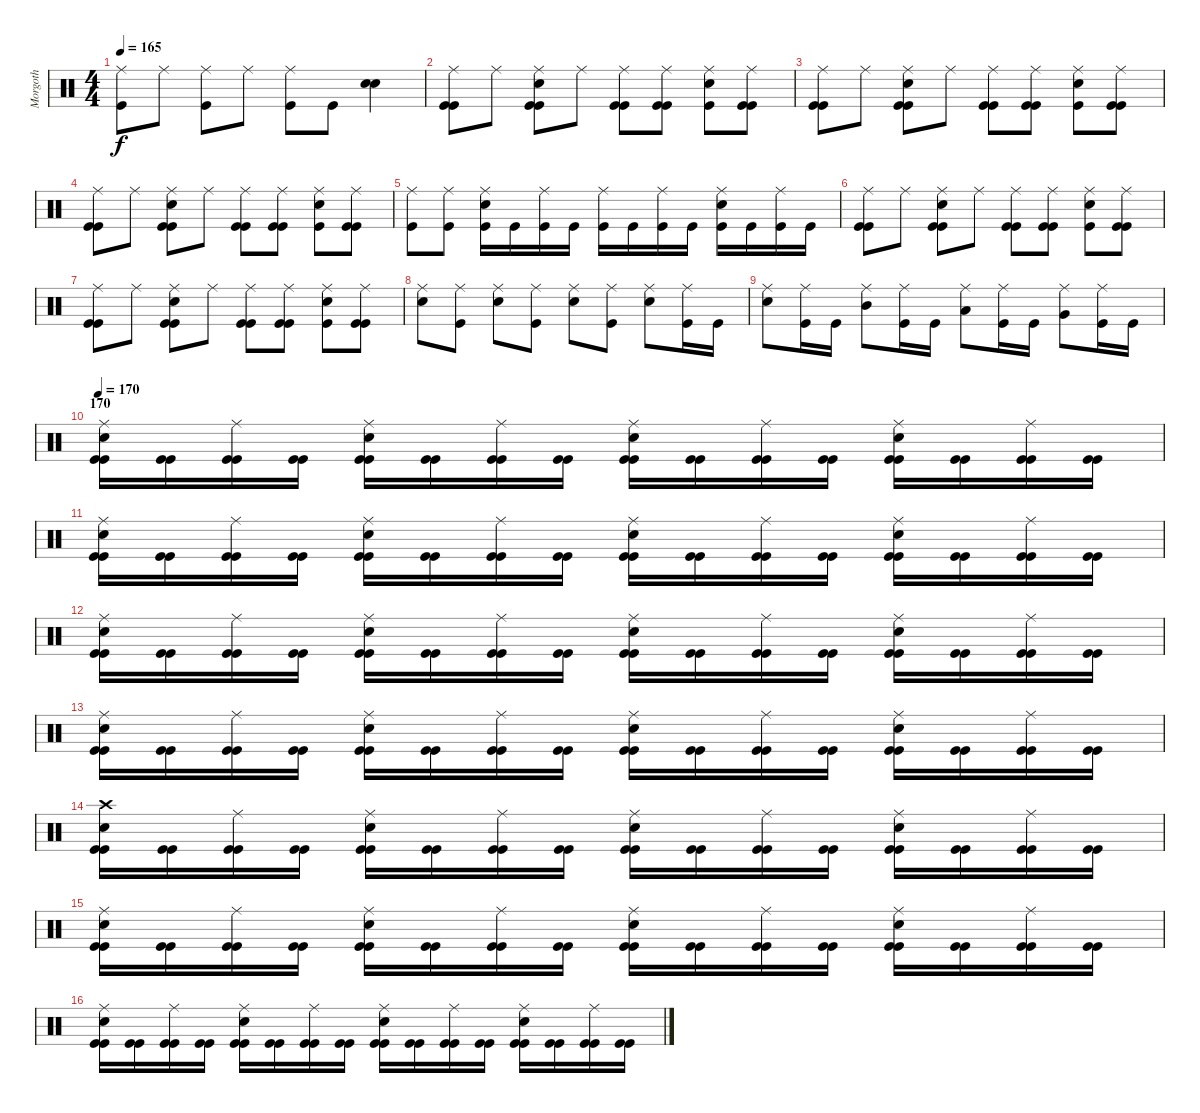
\track ("Morgoth" "Morgoth") {instrument percussion}
\staff {score}
\articulation defaults
\ts (4 4)
\tempo 165
\clef neutral
\ks c
("Ride (middle)" "Kick (hit)").8{dy f} "Ride (middle)".8 ("Ride (middle)" "Kick (hit)").8 "Ride (middle)".8 ("Ride (middle)" "Kick (hit)").8 "Kick (hit)".8 ("Electric Snare (hit)" "Electric Snare (hit)").4 |
("Ride (middle)" "Kick (hit)" "Kick (hit)").8 "Ride (middle)".8 ("Ride (middle)" "Electric Snare (hit)" "Kick (hit)" "Kick (hit)").8 "Ride (middle)".8 ("Ride (middle)" "Kick (hit)" "Kick (hit)").8 ("Ride (middle)" "Kick (hit)" "Kick (hit)").8 ("Ride (middle)" "Electric Snare (hit)" "Kick (hit)").8 ("Ride (middle)" "Kick (hit)" "Kick (hit)").8 |
("Ride (middle)" "Kick (hit)" "Kick (hit)").8 "Ride (middle)".8 ("Ride (middle)" "Electric Snare (hit)" "Kick (hit)" "Kick (hit)").8 "Ride (middle)".8 ("Ride (middle)" "Kick (hit)" "Kick (hit)").8 ("Ride (middle)" "Kick (hit)" "Kick (hit)").8 ("Ride (middle)" "Electric Snare (hit)" "Kick (hit)").8 ("Ride (middle)" "Kick (hit)" "Kick (hit)").8 |
("Ride (middle)" "Kick (hit)" "Kick (hit)").8 "Ride (middle)".8 ("Ride (middle)" "Electric Snare (hit)" "Kick (hit)" "Kick (hit)").8 "Ride (middle)".8 ("Ride (middle)" "Kick (hit)" "Kick (hit)").8 ("Ride (middle)" "Kick (hit)" "Kick (hit)").8 ("Ride (middle)" "Electric Snare (hit)" "Kick (hit)").8 ("Ride (middle)" "Kick (hit)" "Kick (hit)").8 |
("Ride (middle)" "Kick (hit)").8 ("Ride (middle)" "Kick (hit)").8 ("Ride (middle)" "Electric Snare (hit)" "Kick (hit)").16 "Kick (hit)".16 ("Ride (middle)" "Kick (hit)").16 "Kick (hit)".16 ("Ride (middle)" "Kick (hit)").16 "Kick (hit)".16 ("Ride (middle)" "Kick (hit)").16 "Kick (hit)".16 ("Ride (middle)" "Electric Snare (hit)" "Kick (hit)").16 "Kick (hit)".16 ("Ride (middle)" "Kick (hit)").16 "Kick (hit)".16 |
("Ride (middle)" "Kick (hit)" "Kick (hit)").8 "Ride (middle)".8 ("Ride (middle)" "Electric Snare (hit)" "Kick (hit)" "Kick (hit)").8 "Ride (middle)".8 ("Ride (middle)" "Kick (hit)" "Kick (hit)").8 ("Ride (middle)" "Kick (hit)" "Kick (hit)").8 ("Ride (middle)" "Electric Snare (hit)" "Kick (hit)").8 ("Ride (middle)" "Kick (hit)" "Kick (hit)").8 |
("Ride (middle)" "Kick (hit)" "Kick (hit)").8 "Ride (middle)".8 ("Ride (middle)" "Electric Snare (hit)" "Kick (hit)" "Kick (hit)").8 "Ride (middle)".8 ("Ride (middle)" "Kick (hit)" "Kick (hit)").8 ("Ride (middle)" "Kick (hit)" "Kick (hit)").8 ("Ride (middle)" "Electric Snare (hit)" "Kick (hit)").8 ("Ride (middle)" "Kick (hit)" "Kick (hit)").8 |
("Ride (middle)" "Electric Snare (hit)").8 ("Ride (middle)" "Kick (hit)").8 ("Ride (middle)" "Electric Snare (hit)").8 ("Ride (middle)" "Kick (hit)").8 ("Ride (middle)" "Electric Snare (hit)").8 ("Ride (middle)" "Kick (hit)").8 ("Ride (middle)" "Electric Snare (hit)").8 ("Ride (middle)" "Kick (hit)").16 "Kick (hit)".16 |
("Ride (middle)" "Electric Snare (hit)").8 ("Ride (middle)" "Kick (hit)").16 "Kick (hit)".16 ("Ride (middle)" "Mid Tom (hit)").8 ("Ride (middle)" "Kick (hit)").16 "Kick (hit)".16 ("Ride (middle)" "Low Tom (hit)").8 ("Ride (middle)" "Kick (hit)").16 "Kick (hit)".16 ("Ride (middle)" "Very Low Tom (hit)").8 ("Ride (middle)" "Kick (hit)").16 "Kick (hit)".16 |
\section ("" "170")
\tempo 170
("Ride (middle)" "Electric Snare (hit)" "Kick (hit)" "Kick (hit)").16 ("Kick (hit)" "Kick (hit)").16 ("Ride (middle)" "Kick (hit)" "Kick (hit)").16 ("Kick (hit)" "Kick (hit)").16 ("Ride (middle)" "Electric Snare (hit)" "Kick (hit)" "Kick (hit)").16 ("Kick (hit)" "Kick (hit)").16 ("Ride (middle)" "Kick (hit)" "Kick (hit)").16 ("Kick (hit)" "Kick (hit)").16 ("Ride (middle)" "Electric Snare (hit)" "Kick (hit)" "Kick (hit)").16 ("Kick (hit)" "Kick (hit)").16 ("Ride (middle)" "Kick (hit)" "Kick (hit)").16 ("Kick (hit)" "Kick (hit)").16 ("Ride (middle)" "Electric Snare (hit)" "Kick (hit)" "Kick (hit)").16 ("Kick (hit)" "Kick (hit)").16 ("Ride (middle)" "Kick (hit)" "Kick (hit)").16 ("Kick (hit)" "Kick (hit)").16 |
("Ride (middle)" "Electric Snare (hit)" "Kick (hit)" "Kick (hit)").16 ("Kick (hit)" "Kick (hit)").16 ("Ride (middle)" "Kick (hit)" "Kick (hit)").16 ("Kick (hit)" "Kick (hit)").16 ("Ride (middle)" "Electric Snare (hit)" "Kick (hit)" "Kick (hit)").16 ("Kick (hit)" "Kick (hit)").16 ("Ride (middle)" "Kick (hit)" "Kick (hit)").16 ("Kick (hit)" "Kick (hit)").16 ("Ride (middle)" "Electric Snare (hit)" "Kick (hit)" "Kick (hit)").16 ("Kick (hit)" "Kick (hit)").16 ("Ride (middle)" "Kick (hit)" "Kick (hit)").16 ("Kick (hit)" "Kick (hit)").16 ("Ride (middle)" "Electric Snare (hit)" "Kick (hit)" "Kick (hit)").16 ("Kick (hit)" "Kick (hit)").16 ("Ride (middle)" "Kick (hit)" "Kick (hit)").16 ("Kick (hit)" "Kick (hit)").16 |
("Ride (middle)" "Electric Snare (hit)" "Kick (hit)" "Kick (hit)").16 ("Kick (hit)" "Kick (hit)").16 ("Ride (middle)" "Kick (hit)" "Kick (hit)").16 ("Kick (hit)" "Kick (hit)").16 ("Ride (middle)" "Electric Snare (hit)" "Kick (hit)" "Kick (hit)").16 ("Kick (hit)" "Kick (hit)").16 ("Ride (middle)" "Kick (hit)" "Kick (hit)").16 ("Kick (hit)" "Kick (hit)").16 ("Ride (middle)" "Electric Snare (hit)" "Kick (hit)" "Kick (hit)").16 ("Kick (hit)" "Kick (hit)").16 ("Ride (middle)" "Kick (hit)" "Kick (hit)").16 ("Kick (hit)" "Kick (hit)").16 ("Ride (middle)" "Electric Snare (hit)" "Kick (hit)" "Kick (hit)").16 ("Kick (hit)" "Kick (hit)").16 ("Ride (middle)" "Kick (hit)" "Kick (hit)").16 ("Kick (hit)" "Kick (hit)").16 |
("Ride (middle)" "Electric Snare (hit)" "Kick (hit)" "Kick (hit)").16 ("Kick (hit)" "Kick (hit)").16 ("Ride (middle)" "Kick (hit)" "Kick (hit)").16 ("Kick (hit)" "Kick (hit)").16 ("Ride (middle)" "Electric Snare (hit)" "Kick (hit)" "Kick (hit)").16 ("Kick (hit)" "Kick (hit)").16 ("Ride (middle)" "Kick (hit)" "Kick (hit)").16 ("Kick (hit)" "Kick (hit)").16 ("Ride (middle)" "Electric Snare (hit)" "Kick (hit)" "Kick (hit)").16 ("Kick (hit)" "Kick (hit)").16 ("Ride (middle)" "Kick (hit)" "Kick (hit)").16 ("Kick (hit)" "Kick (hit)").16 ("Ride (middle)" "Electric Snare (hit)" "Kick (hit)" "Kick (hit)").16 ("Kick (hit)" "Kick (hit)").16 ("Ride (middle)" "Kick (hit)" "Kick (hit)").16 ("Kick (hit)" "Kick (hit)").16 |
("Crash high (hit)" "Electric Snare (hit)" "Kick (hit)" "Kick (hit)").16 ("Kick (hit)" "Kick (hit)").16 ("Ride (middle)" "Kick (hit)" "Kick (hit)").16 ("Kick (hit)" "Kick (hit)").16 ("Ride (middle)" "Electric Snare (hit)" "Kick (hit)" "Kick (hit)").16 ("Kick (hit)" "Kick (hit)").16 ("Ride (middle)" "Kick (hit)" "Kick (hit)").16 ("Kick (hit)" "Kick (hit)").16 ("Ride (middle)" "Electric Snare (hit)" "Kick (hit)" "Kick (hit)").16 ("Kick (hit)" "Kick (hit)").16 ("Ride (middle)" "Kick (hit)" "Kick (hit)").16 ("Kick (hit)" "Kick (hit)").16 ("Ride (middle)" "Electric Snare (hit)" "Kick (hit)" "Kick (hit)").16 ("Kick (hit)" "Kick (hit)").16 ("Ride (middle)" "Kick (hit)" "Kick (hit)").16 ("Kick (hit)" "Kick (hit)").16 |
("Ride (middle)" "Electric Snare (hit)" "Kick (hit)" "Kick (hit)").16 ("Kick (hit)" "Kick (hit)").16 ("Ride (middle)" "Kick (hit)" "Kick (hit)").16 ("Kick (hit)" "Kick (hit)").16 ("Ride (middle)" "Electric Snare (hit)" "Kick (hit)" "Kick (hit)").16 ("Kick (hit)" "Kick (hit)").16 ("Ride (middle)" "Kick (hit)" "Kick (hit)").16 ("Kick (hit)" "Kick (hit)").16 ("Ride (middle)" "Electric Snare (hit)" "Kick (hit)" "Kick (hit)").16 ("Kick (hit)" "Kick (hit)").16 ("Ride (middle)" "Kick (hit)" "Kick (hit)").16 ("Kick (hit)" "Kick (hit)").16 ("Ride (middle)" "Electric Snare (hit)" "Kick (hit)" "Kick (hit)").16 ("Kick (hit)" "Kick (hit)").16 ("Ride (middle)" "Kick (hit)" "Kick (hit)").16 ("Kick (hit)" "Kick (hit)").16 |
("Ride (middle)" "Electric Snare (hit)" "Kick (hit)" "Kick (hit)").16 ("Kick (hit)" "Kick (hit)").16 ("Ride (middle)" "Kick (hit)" "Kick (hit)").16 ("Kick (hit)" "Kick (hit)").16 ("Ride (middle)" "Electric Snare (hit)" "Kick (hit)" "Kick (hit)").16 ("Kick (hit)" "Kick (hit)").16 ("Ride (middle)" "Kick (hit)" "Kick (hit)").16 ("Kick (hit)" "Kick (hit)").16 ("Ride (middle)" "Electric Snare (hit)" "Kick (hit)" "Kick (hit)").16 ("Kick (hit)" "Kick (hit)").16 ("Ride (middle)" "Kick (hit)" "Kick (hit)").16 ("Kick (hit)" "Kick (hit)").16 ("Ride (middle)" "Electric Snare (hit)" "Kick (hit)" "Kick (hit)").16 ("Kick (hit)" "Kick (hit)").16 ("Ride (middle)" "Kick (hit)" "Kick (hit)").16 ("Kick (hit)" "Kick (hit)").16
